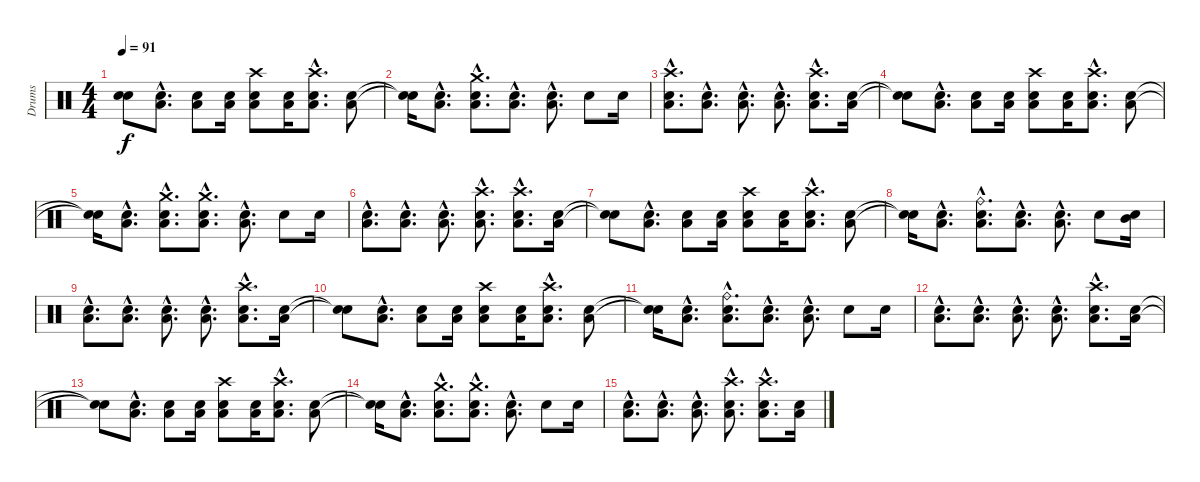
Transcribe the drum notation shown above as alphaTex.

\track ("Drums" "Drums") {instrument percussion}
\staff {score}
\articulation defaults
\ts (4 4)
\tempo 91
\clef neutral
\ks c
("Snare (hit)"{t} "Snare (hit)"{t}).8{dy f} ("Low Tom (hit)"{hac} "Electric Snare (hit)"{hac}).8{d} ("Low Tom (hit)" "Electric Snare (hit)").8 ("Low Tom (hit)" "Electric Snare (hit)").16 ("Crash high (hit)" "Low Tom (hit)" "Electric Snare (hit)").8 ("Low Tom (hit)" "Electric Snare (hit)").16 ("Crash high (hit)"{hac} "Low Tom (hit)"{hac} "Electric Snare (hit)"{hac}).8{d} ("Low Tom (hit)" "Electric Snare (hit)").8 |
("Snare (hit)"{t} "Snare (hit)"{t}).16 ("Low Tom (hit)"{hac} "Electric Snare (hit)"{hac}).8{d} ("Crash medium (hit)"{hac} "Low Tom (hit)"{hac} "Electric Snare (hit)"{hac}).8{d} ("Low Tom (hit)"{hac} "Electric Snare (hit)"{hac}).8{d} ("Low Tom (hit)"{hac} "Electric Snare (hit)"{hac}).8{d} "Electric Snare (hit)".8 "Electric Snare (hit)".16 |
("Crash high (hit)"{hac} "Low Tom (hit)"{hac} "Electric Snare (hit)"{hac}).8{d} ("Low Tom (hit)"{hac} "Electric Snare (hit)"{hac}).8{d} ("Low Tom (hit)"{hac} "Electric Snare (hit)"{hac}).8{d} ("Low Tom (hit)"{hac} "Electric Snare (hit)"{hac}).8{d} ("Crash high (hit)"{hac} "Low Tom (hit)"{hac} "Electric Snare (hit)"{hac}).8{d} ("Low Tom (hit)" "Electric Snare (hit)").16 |
("Snare (hit)"{t} "Snare (hit)"{t}).8 ("Low Tom (hit)"{hac} "Electric Snare (hit)"{hac}).8{d} ("Low Tom (hit)" "Electric Snare (hit)").8 ("Low Tom (hit)" "Electric Snare (hit)").16 ("Crash high (hit)" "Low Tom (hit)" "Electric Snare (hit)").8 ("Low Tom (hit)" "Electric Snare (hit)").16 ("Crash high (hit)"{hac} "Low Tom (hit)"{hac} "Electric Snare (hit)"{hac}).8{d} ("Low Tom (hit)" "Electric Snare (hit)").8 |
("Snare (hit)"{t} "Snare (hit)"{t}).16 ("Low Tom (hit)"{hac} "Electric Snare (hit)"{hac}).8{d} ("Crash medium (hit)"{hac} "Low Tom (hit)"{hac} "Electric Snare (hit)"{hac}).8{d} ("Crash medium (hit)"{hac} "Low Tom (hit)"{hac} "Electric Snare (hit)"{hac}).8{d} ("Low Tom (hit)"{hac} "Electric Snare (hit)"{hac}).8{d} "Electric Snare (hit)".8 "Electric Snare (hit)".16 |
("Low Tom (hit)"{hac} "Electric Snare (hit)"{hac}).8{d} ("Low Tom (hit)"{hac} "Electric Snare (hit)"{hac}).8{d} ("Low Tom (hit)"{hac} "Electric Snare (hit)"{hac}).8{d} ("Crash high (hit)"{hac} "Low Tom (hit)"{hac} "Electric Snare (hit)"{hac}).8{d} ("Crash high (hit)"{hac} "Low Tom (hit)"{hac} "Electric Snare (hit)"{hac}).8{d} ("Low Tom (hit)" "Electric Snare (hit)").16 |
("Snare (hit)"{t} "Snare (hit)"{t}).8 ("Low Tom (hit)"{hac} "Electric Snare (hit)"{hac}).8{d} ("Low Tom (hit)" "Electric Snare (hit)").8 ("Low Tom (hit)" "Electric Snare (hit)").16 ("Crash high (hit)" "Low Tom (hit)" "Electric Snare (hit)").8 ("Low Tom (hit)" "Electric Snare (hit)").16 ("Crash high (hit)"{hac} "Low Tom (hit)"{hac} "Electric Snare (hit)"{hac}).8{d} ("Low Tom (hit)" "Electric Snare (hit)").8 |
("Snare (hit)"{t} "Snare (hit)"{t}).16 ("Low Tom (hit)"{hac} "Electric Snare (hit)"{hac}).8{d} ("Ride (bell)"{hac} "Low Tom (hit)"{hac} "Electric Snare (hit)"{hac}).8{d} ("Low Tom (hit)"{hac} "Electric Snare (hit)"{hac}).8{d} ("Low Tom (hit)"{hac} "Electric Snare (hit)"{hac}).8{d} "Electric Snare (hit)".8 ("Mid Tom (hit)" "Electric Snare (hit)").16 |
("Low Tom (hit)"{hac} "Electric Snare (hit)"{hac}).8{d} ("Low Tom (hit)"{hac} "Electric Snare (hit)"{hac}).8{d} ("Low Tom (hit)"{hac} "Electric Snare (hit)"{hac}).8{d} ("Low Tom (hit)"{hac} "Electric Snare (hit)"{hac}).8{d} ("Crash high (hit)"{hac} "Low Tom (hit)"{hac} "Electric Snare (hit)"{hac}).8{d} ("Low Tom (hit)" "Electric Snare (hit)").16 |
("Snare (hit)"{t} "Snare (hit)"{t}).8 ("Low Tom (hit)"{hac} "Electric Snare (hit)"{hac}).8{d} ("Low Tom (hit)" "Electric Snare (hit)").8 ("Low Tom (hit)" "Electric Snare (hit)").16 ("Crash high (hit)" "Low Tom (hit)" "Electric Snare (hit)").8 ("Low Tom (hit)" "Electric Snare (hit)").16 ("Crash high (hit)"{hac} "Low Tom (hit)"{hac} "Electric Snare (hit)"{hac}).8{d} ("Low Tom (hit)" "Electric Snare (hit)").8 |
("Snare (hit)"{t} "Snare (hit)"{t}).16 ("Low Tom (hit)"{hac} "Electric Snare (hit)"{hac}).8{d} ("Ride (bell)"{hac} "Low Tom (hit)"{hac} "Electric Snare (hit)"{hac}).8{d} ("Low Tom (hit)"{hac} "Electric Snare (hit)"{hac}).8{d} ("Low Tom (hit)"{hac} "Electric Snare (hit)"{hac}).8{d} "Electric Snare (hit)".8 "Electric Snare (hit)".16 |
("Low Tom (hit)"{hac} "Electric Snare (hit)"{hac}).8{d} ("Low Tom (hit)"{hac} "Electric Snare (hit)"{hac}).8{d} ("Low Tom (hit)"{hac} "Electric Snare (hit)"{hac}).8{d} ("Low Tom (hit)"{hac} "Electric Snare (hit)"{hac}).8{d} ("Crash high (hit)"{hac} "Low Tom (hit)"{hac} "Electric Snare (hit)"{hac}).8{d} ("Low Tom (hit)" "Electric Snare (hit)").16 |
("Snare (hit)"{t} "Snare (hit)"{t}).8 ("Low Tom (hit)"{hac} "Electric Snare (hit)"{hac}).8{d} ("Low Tom (hit)" "Electric Snare (hit)").8 ("Low Tom (hit)" "Electric Snare (hit)").16 ("Crash high (hit)" "Low Tom (hit)" "Electric Snare (hit)").8 ("Low Tom (hit)" "Electric Snare (hit)").16 ("Crash high (hit)"{hac} "Low Tom (hit)"{hac} "Electric Snare (hit)"{hac}).8{d} ("Low Tom (hit)" "Electric Snare (hit)").8 |
("Snare (hit)"{t} "Snare (hit)"{t}).16 ("Low Tom (hit)"{hac} "Electric Snare (hit)"{hac}).8{d} ("Crash medium (hit)"{hac} "Low Tom (hit)"{hac} "Electric Snare (hit)"{hac}).8{d} ("Crash medium (hit)"{hac} "Low Tom (hit)"{hac} "Electric Snare (hit)"{hac}).8{d} ("Low Tom (hit)"{hac} "Electric Snare (hit)"{hac}).8{d} "Electric Snare (hit)".8 "Electric Snare (hit)".16 |
("Low Tom (hit)"{hac} "Electric Snare (hit)"{hac}).8{d} ("Low Tom (hit)"{hac} "Electric Snare (hit)"{hac}).8{d} ("Low Tom (hit)"{hac} "Electric Snare (hit)"{hac}).8{d} ("Crash high (hit)"{hac} "Low Tom (hit)"{hac} "Electric Snare (hit)"{hac}).8{d} ("Crash high (hit)"{hac} "Low Tom (hit)"{hac} "Electric Snare (hit)"{hac}).8{d} ("Low Tom (hit)" "Electric Snare (hit)").16
